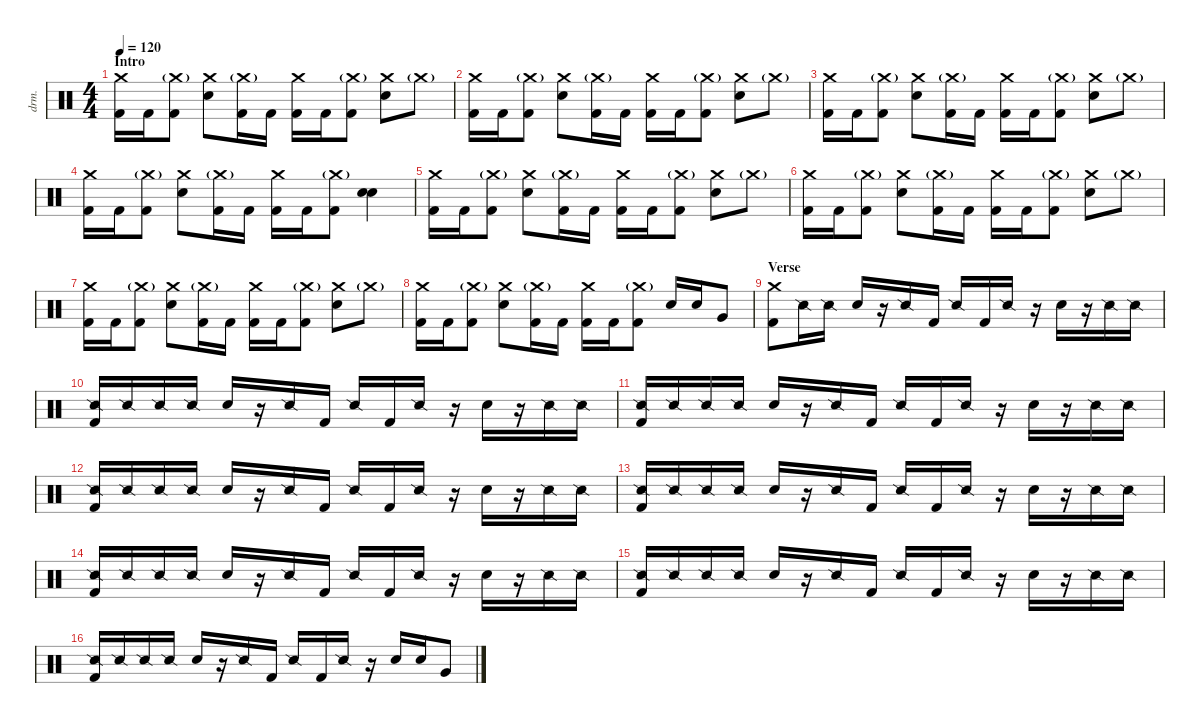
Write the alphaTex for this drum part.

\defaultSystemsLayout 4
\hideDynamics
\bracketExtendMode nobrackets
\track ("Drums - Mario" "drm.") {instrument percussion}
\staff {score}
\articulation defaults
\ts (4 4)
\section ("" "Intro")
\tempo 120
\clef neutral
\ks c
("Kick (hit) 2" "Crash medium (hit)").16{dy ff} "Kick (hit) 2".16 ("Kick (hit) 2" "Crash medium (hit)"{g}).8 ("Snare (hit) 2" "Crash medium (hit)").8 ("Kick (hit) 2" "Crash medium (hit)"{g}).16 "Kick (hit) 2".16 ("Kick (hit) 2" "Crash medium (hit)").16 "Kick (hit) 2".16 ("Kick (hit) 2" "Crash medium (hit)"{g}).8 ("Snare (hit) 2" "Crash medium (hit)").8 "Crash medium (hit)"{g}.8 |
("Kick (hit) 2" "Crash medium (hit)").16 "Kick (hit) 2".16 ("Kick (hit) 2" "Crash medium (hit)"{g}).8 ("Snare (hit) 2" "Crash medium (hit)").8 ("Kick (hit) 2" "Crash medium (hit)"{g}).16 "Kick (hit) 2".16 ("Kick (hit) 2" "Crash medium (hit)").16 "Kick (hit) 2".16 ("Kick (hit) 2" "Crash medium (hit)"{g}).8 ("Snare (hit) 2" "Crash medium (hit)").8 "Crash medium (hit)"{g}.8 |
("Kick (hit) 2" "Crash medium (hit)").16 "Kick (hit) 2".16 ("Kick (hit) 2" "Crash medium (hit)"{g}).8 ("Snare (hit) 2" "Crash medium (hit)").8 ("Kick (hit) 2" "Crash medium (hit)"{g}).16 "Kick (hit) 2".16 ("Kick (hit) 2" "Crash medium (hit)").16 "Kick (hit) 2".16 ("Kick (hit) 2" "Crash medium (hit)"{g}).8 ("Snare (hit) 2" "Crash medium (hit)").8 "Crash medium (hit)"{g}.8 |
("Kick (hit) 2" "Crash medium (hit)").16 "Kick (hit) 2".16 ("Kick (hit) 2" "Crash medium (hit)"{g}).8 ("Snare (hit) 2" "Crash medium (hit)").8 ("Kick (hit) 2" "Crash medium (hit)"{g}).16 "Kick (hit) 2".16 ("Kick (hit) 2" "Crash medium (hit)").16 "Kick (hit) 2".16 ("Kick (hit) 2" "Crash medium (hit)"{g}).8 ("Snare (hit) 2" "Snare (hit) 2").4 |
("Kick (hit) 2" "Crash medium (hit)").16 "Kick (hit) 2".16 ("Kick (hit) 2" "Crash medium (hit)"{g}).8 ("Snare (hit) 2" "Crash medium (hit)").8 ("Kick (hit) 2" "Crash medium (hit)"{g}).16 "Kick (hit) 2".16 ("Kick (hit) 2" "Crash medium (hit)").16 "Kick (hit) 2".16 ("Kick (hit) 2" "Crash medium (hit)"{g}).8 ("Snare (hit) 2" "Crash medium (hit)").8 "Crash medium (hit)"{g}.8 |
("Kick (hit) 2" "Crash medium (hit)").16 "Kick (hit) 2".16 ("Kick (hit) 2" "Crash medium (hit)"{g}).8 ("Snare (hit) 2" "Crash medium (hit)").8 ("Kick (hit) 2" "Crash medium (hit)"{g}).16 "Kick (hit) 2".16 ("Kick (hit) 2" "Crash medium (hit)").16 "Kick (hit) 2".16 ("Kick (hit) 2" "Crash medium (hit)"{g}).8 ("Snare (hit) 2" "Crash medium (hit)").8 "Crash medium (hit)"{g}.8 |
("Kick (hit) 2" "Crash medium (hit)").16 "Kick (hit) 2".16 ("Kick (hit) 2" "Crash medium (hit)"{g}).8 ("Snare (hit) 2" "Crash medium (hit)").8 ("Kick (hit) 2" "Crash medium (hit)"{g}).16 "Kick (hit) 2".16 ("Kick (hit) 2" "Crash medium (hit)").16 "Kick (hit) 2".16 ("Kick (hit) 2" "Crash medium (hit)"{g}).8 ("Snare (hit) 2" "Crash medium (hit)").8 "Crash medium (hit)"{g}.8 |
("Kick (hit) 2" "Crash medium (hit)").16 "Kick (hit) 2".16 ("Kick (hit) 2" "Crash medium (hit)"{g}).8 ("Snare (hit) 2" "Crash medium (hit)").8 ("Kick (hit) 2" "Crash medium (hit)"{g}).16 "Kick (hit) 2".16 ("Kick (hit) 2" "Crash medium (hit)").16 "Kick (hit) 2".16 ("Kick (hit) 2" "Crash medium (hit)"{g}).8 "Snare (hit) 2".16 "Snare (hit) 2".16 "Very Low Tom (hit)".8 |
\section ("" "Verse")
("Crash medium (hit)" "Kick (hit) 2").8 "Snare (side stick) 2".16 "Snare (side stick) 2".16 "Snare (hit) 2".16 r.16 "Snare (side stick) 2".16 "Kick (hit) 2".16 "Snare (side stick) 2".16 "Kick (hit) 2".16 "Snare (side stick) 2".16 r.16 "Snare (hit) 2".16 r.16 "Snare (side stick) 2".16 "Snare (side stick) 2".16 |
("Kick (hit) 2" "Snare (side stick) 2").16 "Snare (side stick) 2".16 "Snare (side stick) 2".16 "Snare (side stick) 2".16 "Snare (hit) 2".16 r.16 "Snare (side stick) 2".16 "Kick (hit) 2".16 "Snare (side stick) 2".16 "Kick (hit) 2".16 "Snare (side stick) 2".16 r.16 "Snare (hit) 2".16 r.16 "Snare (side stick) 2".16 "Snare (side stick) 2".16 |
("Kick (hit) 2" "Snare (side stick) 2").16 "Snare (side stick) 2".16 "Snare (side stick) 2".16 "Snare (side stick) 2".16 "Snare (hit) 2".16 r.16 "Snare (side stick) 2".16 "Kick (hit) 2".16 "Snare (side stick) 2".16 "Kick (hit) 2".16 "Snare (side stick) 2".16 r.16 "Snare (hit) 2".16 r.16 "Snare (side stick) 2".16 "Snare (side stick) 2".16 |
("Kick (hit) 2" "Snare (side stick) 2").16 "Snare (side stick) 2".16 "Snare (side stick) 2".16 "Snare (side stick) 2".16 "Snare (hit) 2".16 r.16 "Snare (side stick) 2".16 "Kick (hit) 2".16 "Snare (side stick) 2".16 "Kick (hit) 2".16 "Snare (side stick) 2".16 r.16 "Snare (hit) 2".16 r.16 "Snare (side stick) 2".16 "Snare (side stick) 2".16 |
("Kick (hit) 2" "Snare (side stick) 2").16 "Snare (side stick) 2".16 "Snare (side stick) 2".16 "Snare (side stick) 2".16 "Snare (hit) 2".16 r.16 "Snare (side stick) 2".16 "Kick (hit) 2".16 "Snare (side stick) 2".16 "Kick (hit) 2".16 "Snare (side stick) 2".16 r.16 "Snare (hit) 2".16 r.16 "Snare (side stick) 2".16 "Snare (side stick) 2".16 |
("Kick (hit) 2" "Snare (side stick) 2").16 "Snare (side stick) 2".16 "Snare (side stick) 2".16 "Snare (side stick) 2".16 "Snare (hit) 2".16 r.16 "Snare (side stick) 2".16 "Kick (hit) 2".16 "Snare (side stick) 2".16 "Kick (hit) 2".16 "Snare (side stick) 2".16 r.16 "Snare (hit) 2".16 r.16 "Snare (side stick) 2".16 "Snare (side stick) 2".16 |
("Kick (hit) 2" "Snare (side stick) 2").16 "Snare (side stick) 2".16 "Snare (side stick) 2".16 "Snare (side stick) 2".16 "Snare (hit) 2".16 r.16 "Snare (side stick) 2".16 "Kick (hit) 2".16 "Snare (side stick) 2".16 "Kick (hit) 2".16 "Snare (side stick) 2".16 r.16 "Snare (hit) 2".16 r.16 "Snare (side stick) 2".16 "Snare (side stick) 2".16 |
("Kick (hit) 2" "Snare (side stick) 2").16 "Snare (side stick) 2".16 "Snare (side stick) 2".16 "Snare (side stick) 2".16 "Snare (hit) 2".16 r.16 "Snare (side stick) 2".16 "Kick (hit) 2".16 "Snare (side stick) 2".16 "Kick (hit) 2".16 "Snare (side stick) 2".16 r.16 "Snare (hit) 2".16 "Snare (hit) 2".16 "Very Low Tom (hit)".8
